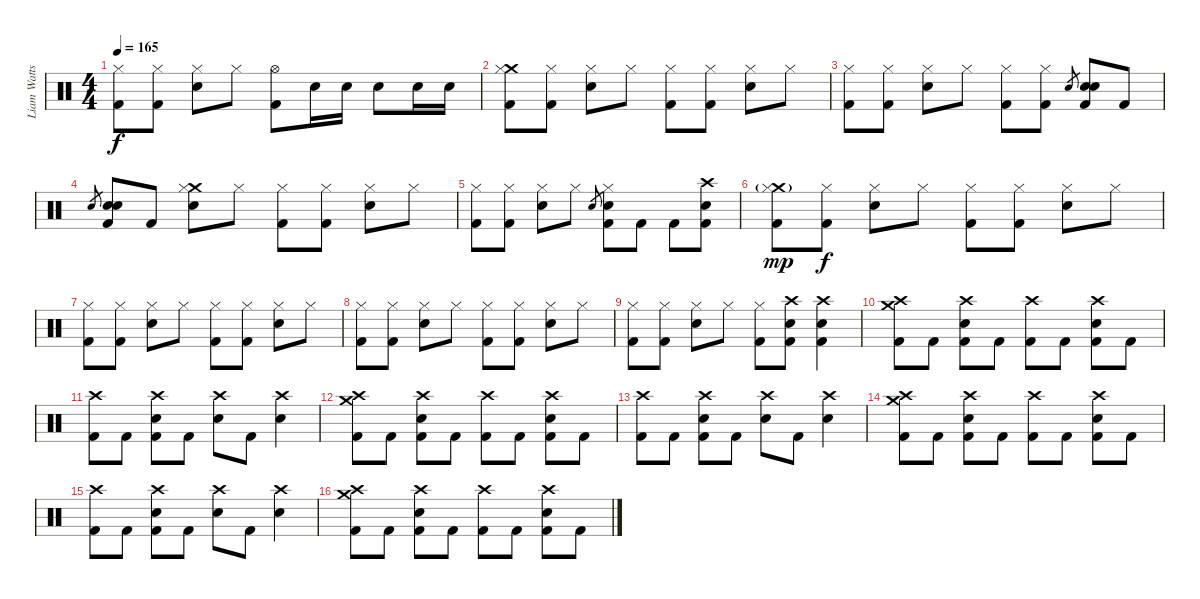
\track ("Liam Watts (Percussion)" "Liam Watts") {instrument percussion}
\staff {score}
\articulation defaults
\ts (4 4)
\tempo 165
\clef neutral
\ks c
("Hi-Hat (closed)" "Kick (hit) 2").8{dy f} ("Hi-Hat (closed)" "Kick (hit) 2").8 ("Hi-Hat (closed)" "Snare (hit) 2").8 "Hi-Hat (closed)".8 ("Hi-Hat (open)" "Kick (hit) 2").8 "Snare (hit) 2".16 "Snare (hit) 2".16 "Snare (hit) 2".8 "Snare (hit) 2".16 "Snare (hit) 2".16 |
("Crash medium (hit)" "Hi-Hat (closed)" "Kick (hit) 2").8 ("Hi-Hat (closed)" "Kick (hit) 2").8 ("Hi-Hat (closed)" "Snare (hit) 2").8 "Hi-Hat (closed)".8 ("Hi-Hat (closed)" "Kick (hit) 2").8 ("Hi-Hat (closed)" "Kick (hit) 2").8 ("Hi-Hat (closed)" "Snare (hit) 2").8 "Hi-Hat (closed)".8 |
("Hi-Hat (closed)" "Kick (hit) 2").8 ("Hi-Hat (closed)" "Kick (hit) 2").8 ("Hi-Hat (closed)" "Snare (hit) 2").8 "Hi-Hat (closed)".8 ("Hi-Hat (closed)" "Kick (hit) 2").8 ("Hi-Hat (closed)" "Kick (hit) 2").8 "Snare (hit) 2".8{gr} ("Snare (hit) 2" "Snare (hit) 2" "Kick (hit) 2").8 "Kick (hit) 2".8 |
"Snare (hit) 2".8{gr} ("Snare (hit) 2" "Snare (hit) 2" "Kick (hit) 2").8 "Kick (hit) 2".8 ("Crash medium (hit)" "Hi-Hat (closed)" "Snare (hit) 2").8 "Hi-Hat (closed)".8 ("Hi-Hat (closed)" "Kick (hit) 2").8 ("Hi-Hat (closed)" "Kick (hit) 2").8 ("Hi-Hat (closed)" "Snare (hit) 2").8 "Hi-Hat (closed)".8 |
("Hi-Hat (closed)" "Kick (hit) 2").8 ("Hi-Hat (closed)" "Kick (hit) 2").8 ("Hi-Hat (closed)" "Snare (hit) 2").8 "Hi-Hat (closed)".8 "Snare (hit) 2".8{gr} ("Hi-Hat (closed)" "Snare (hit) 2" "Kick (hit) 2").8 "Kick (hit) 2".8 "Kick (hit) 2".8 ("Crash high (hit)" "Snare (hit) 2" "Kick (hit) 2").8 |
("Crash medium (hit)"{g} "Hi-Hat (closed)" "Kick (hit) 2").8{dy mp} ("Hi-Hat (closed)" "Kick (hit) 2").8{dy f} ("Hi-Hat (closed)" "Snare (hit) 2").8 "Hi-Hat (closed)".8 ("Hi-Hat (closed)" "Kick (hit) 2").8 ("Hi-Hat (closed)" "Kick (hit) 2").8 ("Hi-Hat (closed)" "Snare (hit) 2").8 "Hi-Hat (closed)".8 |
("Hi-Hat (closed)" "Kick (hit) 2").8 ("Hi-Hat (closed)" "Kick (hit) 2").8 ("Hi-Hat (closed)" "Snare (hit) 2").8 "Hi-Hat (closed)".8 ("Hi-Hat (closed)" "Kick (hit) 2").8 ("Hi-Hat (closed)" "Kick (hit) 2").8 ("Hi-Hat (closed)" "Snare (hit) 2").8 "Hi-Hat (closed)".8 |
("Hi-Hat (closed)" "Kick (hit) 2").8 ("Hi-Hat (closed)" "Kick (hit) 2").8 ("Hi-Hat (closed)" "Snare (hit) 2").8 "Hi-Hat (closed)".8 ("Hi-Hat (closed)" "Kick (hit) 2").8 ("Hi-Hat (closed)" "Kick (hit) 2").8 ("Hi-Hat (closed)" "Snare (hit) 2").8 "Hi-Hat (closed)".8 |
("Hi-Hat (closed)" "Kick (hit) 2").8 ("Hi-Hat (closed)" "Kick (hit) 2").8 ("Hi-Hat (closed)" "Snare (hit) 2").8 "Hi-Hat (closed)".8 ("Hi-Hat (closed)" "Kick (hit) 2").8 ("Crash high (hit)" "Snare (hit) 2" "Kick (hit) 2").8 ("Crash high (hit)" "Snare (hit) 2" "Kick (hit) 2").4 |
("Crash medium (hit)" "Crash high (hit)" "Kick (hit) 2").8 "Kick (hit) 2".8 ("Crash high (hit)" "Snare (hit) 2" "Kick (hit) 2").8 "Kick (hit) 2".8 ("Crash high (hit)" "Kick (hit) 2").8 "Kick (hit) 2".8 ("Crash high (hit)" "Snare (hit) 2" "Kick (hit) 2").8 "Kick (hit) 2".8 |
("Crash high (hit)" "Kick (hit) 2").8 "Kick (hit) 2".8 ("Crash high (hit)" "Snare (hit) 2" "Kick (hit) 2").8 "Kick (hit) 2".8 ("Crash high (hit)" "Snare (hit) 2").8 "Kick (hit) 2".8 ("Crash high (hit)" "Snare (hit) 2").4 |
("Crash medium (hit)" "Crash high (hit)" "Kick (hit) 2").8 "Kick (hit) 2".8 ("Crash high (hit)" "Snare (hit) 2" "Kick (hit) 2").8 "Kick (hit) 2".8 ("Crash high (hit)" "Kick (hit) 2").8 "Kick (hit) 2".8 ("Crash high (hit)" "Snare (hit) 2" "Kick (hit) 2").8 "Kick (hit) 2".8 |
("Crash high (hit)" "Kick (hit) 2").8 "Kick (hit) 2".8 ("Crash high (hit)" "Snare (hit) 2" "Kick (hit) 2").8 "Kick (hit) 2".8 ("Crash high (hit)" "Snare (hit) 2").8 "Kick (hit) 2".8 ("Crash high (hit)" "Snare (hit) 2").4 |
("Crash medium (hit)" "Crash high (hit)" "Kick (hit) 2").8 "Kick (hit) 2".8 ("Crash high (hit)" "Snare (hit) 2" "Kick (hit) 2").8 "Kick (hit) 2".8 ("Crash high (hit)" "Kick (hit) 2").8 "Kick (hit) 2".8 ("Crash high (hit)" "Snare (hit) 2" "Kick (hit) 2").8 "Kick (hit) 2".8 |
("Crash high (hit)" "Kick (hit) 2").8 "Kick (hit) 2".8 ("Crash high (hit)" "Snare (hit) 2" "Kick (hit) 2").8 "Kick (hit) 2".8 ("Crash high (hit)" "Snare (hit) 2").8 "Kick (hit) 2".8 ("Crash high (hit)" "Snare (hit) 2").4 |
("Crash medium (hit)" "Crash high (hit)" "Kick (hit) 2").8 "Kick (hit) 2".8 ("Crash high (hit)" "Snare (hit) 2" "Kick (hit) 2").8 "Kick (hit) 2".8 ("Crash high (hit)" "Kick (hit) 2").8 "Kick (hit) 2".8 ("Crash high (hit)" "Snare (hit) 2" "Kick (hit) 2").8 "Kick (hit) 2".8
